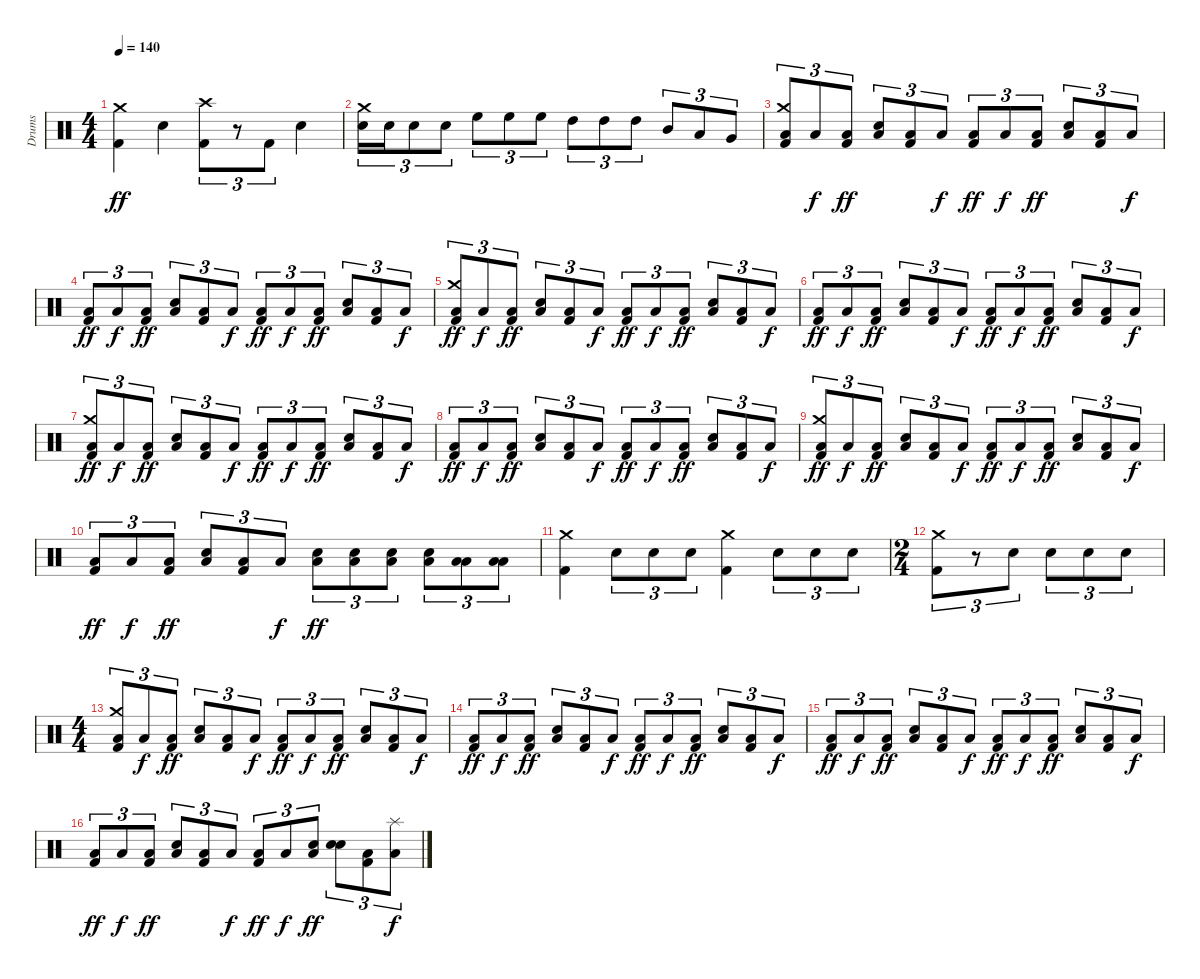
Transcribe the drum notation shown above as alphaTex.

\track ("Drums" "Drums") {instrument percussion}
\staff {score}
\articulation defaults
\ts (4 4)
\tempo 140
\clef neutral
\ks c
("Kick (hit) 2" "Crash medium (hit)").4{dy ff} "Snare (hit) 2".4 ("Kick (hit) 2" "Crash high (hit)").8{tu (3 2)} r.8{tu (3 2)} "Kick (hit) 2".8{tu (3 2)} "Snare (hit) 2".4 |
("Snare (hit) 2" "Crash medium (hit)").16{tu (3 2)} "Snare (hit) 2".16{tu (3 2)} "Snare (hit) 2".8{tu (3 2)} "Snare (hit) 2".8{tu (3 2)} "High Floor Tom (hit)".8{tu (3 2)} "High Floor Tom (hit)".8{tu (3 2)} "High Floor Tom (hit)".8{tu (3 2)} "High Tom (hit)".8{tu (3 2)} "High Tom (hit)".8{tu (3 2)} "High Tom (hit)".8{tu (3 2)} "Mid Tom (hit)".8{tu (3 2)} "Low Tom (hit)".8{tu (3 2)} "Very Low Tom (hit)".8{tu (3 2)} |
("Kick (hit) 2" "Crash medium (hit)" "Low Floor Tom (hit)").8{tu (3 2)} "Low Floor Tom (hit)".8{tu (3 2) dy f} ("Kick (hit) 2" "Low Floor Tom (hit)").8{tu (3 2) dy ff} ("Snare (hit) 2" "Low Floor Tom (hit)").8{tu (3 2)} ("Kick (hit) 2" "Low Floor Tom (hit)").8{tu (3 2)} "Low Floor Tom (hit)".8{tu (3 2) dy f} ("Kick (hit) 2" "Low Floor Tom (hit)").8{tu (3 2) dy ff} "Low Floor Tom (hit)".8{tu (3 2) dy f} ("Kick (hit) 2" "Low Floor Tom (hit)").8{tu (3 2) dy ff} ("Snare (hit) 2" "Low Floor Tom (hit)").8{tu (3 2)} ("Kick (hit) 2" "Low Floor Tom (hit)").8{tu (3 2)} "Low Floor Tom (hit)".8{tu (3 2) dy f} |
("Kick (hit) 2" "Low Floor Tom (hit)").8{tu (3 2) dy ff} "Low Floor Tom (hit)".8{tu (3 2) dy f} ("Kick (hit) 2" "Low Floor Tom (hit)").8{tu (3 2) dy ff} ("Snare (hit) 2" "Low Floor Tom (hit)").8{tu (3 2)} ("Kick (hit) 2" "Low Floor Tom (hit)").8{tu (3 2)} "Low Floor Tom (hit)".8{tu (3 2) dy f} ("Kick (hit) 2" "Low Floor Tom (hit)").8{tu (3 2) dy ff} "Low Floor Tom (hit)".8{tu (3 2) dy f} ("Kick (hit) 2" "Low Floor Tom (hit)").8{tu (3 2) dy ff} ("Snare (hit) 2" "Low Floor Tom (hit)").8{tu (3 2)} ("Kick (hit) 2" "Low Floor Tom (hit)").8{tu (3 2)} "Low Floor Tom (hit)".8{tu (3 2) dy f} |
("Kick (hit) 2" "Crash medium (hit)" "Low Floor Tom (hit)").8{tu (3 2) dy ff} "Low Floor Tom (hit)".8{tu (3 2) dy f} ("Kick (hit) 2" "Low Floor Tom (hit)").8{tu (3 2) dy ff} ("Snare (hit) 2" "Low Floor Tom (hit)").8{tu (3 2)} ("Kick (hit) 2" "Low Floor Tom (hit)").8{tu (3 2)} "Low Floor Tom (hit)".8{tu (3 2) dy f} ("Kick (hit) 2" "Low Floor Tom (hit)").8{tu (3 2) dy ff} "Low Floor Tom (hit)".8{tu (3 2) dy f} ("Kick (hit) 2" "Low Floor Tom (hit)").8{tu (3 2) dy ff} ("Snare (hit) 2" "Low Floor Tom (hit)").8{tu (3 2)} ("Kick (hit) 2" "Low Floor Tom (hit)").8{tu (3 2)} "Low Floor Tom (hit)".8{tu (3 2) dy f} |
("Kick (hit) 2" "Low Floor Tom (hit)").8{tu (3 2) dy ff} "Low Floor Tom (hit)".8{tu (3 2) dy f} ("Kick (hit) 2" "Low Floor Tom (hit)").8{tu (3 2) dy ff} ("Snare (hit) 2" "Low Floor Tom (hit)").8{tu (3 2)} ("Kick (hit) 2" "Low Floor Tom (hit)").8{tu (3 2)} "Low Floor Tom (hit)".8{tu (3 2) dy f} ("Kick (hit) 2" "Low Floor Tom (hit)").8{tu (3 2) dy ff} "Low Floor Tom (hit)".8{tu (3 2) dy f} ("Kick (hit) 2" "Low Floor Tom (hit)").8{tu (3 2) dy ff} ("Snare (hit) 2" "Low Floor Tom (hit)").8{tu (3 2)} ("Kick (hit) 2" "Low Floor Tom (hit)").8{tu (3 2)} "Low Floor Tom (hit)".8{tu (3 2) dy f} |
("Kick (hit) 2" "Crash medium (hit)" "Low Floor Tom (hit)").8{tu (3 2) dy ff} "Low Floor Tom (hit)".8{tu (3 2) dy f} ("Kick (hit) 2" "Low Floor Tom (hit)").8{tu (3 2) dy ff} ("Snare (hit) 2" "Low Floor Tom (hit)").8{tu (3 2)} ("Kick (hit) 2" "Low Floor Tom (hit)").8{tu (3 2)} "Low Floor Tom (hit)".8{tu (3 2) dy f} ("Kick (hit) 2" "Low Floor Tom (hit)").8{tu (3 2) dy ff} "Low Floor Tom (hit)".8{tu (3 2) dy f} ("Kick (hit) 2" "Low Floor Tom (hit)").8{tu (3 2) dy ff} ("Snare (hit) 2" "Low Floor Tom (hit)").8{tu (3 2)} ("Kick (hit) 2" "Low Floor Tom (hit)").8{tu (3 2)} "Low Floor Tom (hit)".8{tu (3 2) dy f} |
("Kick (hit) 2" "Low Floor Tom (hit)").8{tu (3 2) dy ff} "Low Floor Tom (hit)".8{tu (3 2) dy f} ("Kick (hit) 2" "Low Floor Tom (hit)").8{tu (3 2) dy ff} ("Snare (hit) 2" "Low Floor Tom (hit)").8{tu (3 2)} ("Kick (hit) 2" "Low Floor Tom (hit)").8{tu (3 2)} "Low Floor Tom (hit)".8{tu (3 2) dy f} ("Kick (hit) 2" "Low Floor Tom (hit)").8{tu (3 2) dy ff} "Low Floor Tom (hit)".8{tu (3 2) dy f} ("Kick (hit) 2" "Low Floor Tom (hit)").8{tu (3 2) dy ff} ("Snare (hit) 2" "Low Floor Tom (hit)").8{tu (3 2)} ("Kick (hit) 2" "Low Floor Tom (hit)").8{tu (3 2)} "Low Floor Tom (hit)".8{tu (3 2) dy f} |
("Kick (hit) 2" "Crash medium (hit)" "Low Floor Tom (hit)").8{tu (3 2) dy ff} "Low Floor Tom (hit)".8{tu (3 2) dy f} ("Kick (hit) 2" "Low Floor Tom (hit)").8{tu (3 2) dy ff} ("Snare (hit) 2" "Low Floor Tom (hit)").8{tu (3 2)} ("Kick (hit) 2" "Low Floor Tom (hit)").8{tu (3 2)} "Low Floor Tom (hit)".8{tu (3 2) dy f} ("Kick (hit) 2" "Low Floor Tom (hit)").8{tu (3 2) dy ff} "Low Floor Tom (hit)".8{tu (3 2) dy f} ("Kick (hit) 2" "Low Floor Tom (hit)").8{tu (3 2) dy ff} ("Snare (hit) 2" "Low Floor Tom (hit)").8{tu (3 2)} ("Kick (hit) 2" "Low Floor Tom (hit)").8{tu (3 2)} "Low Floor Tom (hit)".8{tu (3 2) dy f} |
("Kick (hit) 2" "Low Floor Tom (hit)").8{tu (3 2) dy ff} "Low Floor Tom (hit)".8{tu (3 2) dy f} ("Kick (hit) 2" "Low Floor Tom (hit)").8{tu (3 2) dy ff} ("Snare (hit) 2" "Low Floor Tom (hit)").8{tu (3 2)} ("Kick (hit) 2" "Low Floor Tom (hit)").8{tu (3 2)} "Low Floor Tom (hit)".8{tu (3 2) dy f} ("Snare (hit) 2" "Low Floor Tom (hit)").8{tu (3 2) dy ff} ("Snare (hit) 2" "Low Floor Tom (hit)").8{tu (3 2)} ("Snare (hit) 2" "Low Floor Tom (hit)").8{tu (3 2)} ("Snare (hit) 2" "Low Floor Tom (hit)").8{tu (3 2)} ("Low Tom (hit)" "Low Floor Tom (hit)").8{tu (3 2)} ("Low Floor Tom (hit)" "Low Floor Tom (hit)").8{tu (3 2)} |
("Kick (hit) 2" "Crash medium (hit)").4 "Snare (hit) 2".8{tu (3 2)} "Snare (hit) 2".8{tu (3 2)} "Snare (hit) 2".8{tu (3 2)} ("Kick (hit) 2" "Crash medium (hit)").4 "Snare (hit) 2".8{tu (3 2)} "Snare (hit) 2".8{tu (3 2)} "Snare (hit) 2".8{tu (3 2)} |
\ts (2 4)
("Kick (hit) 2" "Crash medium (hit)").8{tu (3 2)} r.8{tu (3 2)} "Snare (hit) 2".8{tu (3 2)} "Snare (hit) 2".8{tu (3 2)} "Snare (hit) 2".8{tu (3 2)} "Snare (hit) 2".8{tu (3 2)} |
\ts (4 4)
("Kick (hit) 2" "Crash medium (hit)" "Low Floor Tom (hit)").8{tu (3 2)} "Low Floor Tom (hit)".8{tu (3 2) dy f} ("Kick (hit) 2" "Low Floor Tom (hit)").8{tu (3 2) dy ff} ("Snare (hit) 2" "Low Floor Tom (hit)").8{tu (3 2)} ("Kick (hit) 2" "Low Floor Tom (hit)").8{tu (3 2)} "Low Floor Tom (hit)".8{tu (3 2) dy f} ("Kick (hit) 2" "Low Floor Tom (hit)").8{tu (3 2) dy ff} "Low Floor Tom (hit)".8{tu (3 2) dy f} ("Kick (hit) 2" "Low Floor Tom (hit)").8{tu (3 2) dy ff} ("Snare (hit) 2" "Low Floor Tom (hit)").8{tu (3 2)} ("Kick (hit) 2" "Low Floor Tom (hit)").8{tu (3 2)} "Low Floor Tom (hit)".8{tu (3 2) dy f} |
("Kick (hit) 2" "Low Floor Tom (hit)").8{tu (3 2) dy ff} "Low Floor Tom (hit)".8{tu (3 2) dy f} ("Kick (hit) 2" "Low Floor Tom (hit)").8{tu (3 2) dy ff} ("Snare (hit) 2" "Low Floor Tom (hit)").8{tu (3 2)} ("Kick (hit) 2" "Low Floor Tom (hit)").8{tu (3 2)} "Low Floor Tom (hit)".8{tu (3 2) dy f} ("Kick (hit) 2" "Low Floor Tom (hit)").8{tu (3 2) dy ff} "Low Floor Tom (hit)".8{tu (3 2) dy f} ("Kick (hit) 2" "Low Floor Tom (hit)").8{tu (3 2) dy ff} ("Snare (hit) 2" "Low Floor Tom (hit)").8{tu (3 2)} ("Kick (hit) 2" "Low Floor Tom (hit)").8{tu (3 2)} "Low Floor Tom (hit)".8{tu (3 2) dy f} |
("Kick (hit) 2" "Low Floor Tom (hit)").8{tu (3 2) dy ff} "Low Floor Tom (hit)".8{tu (3 2) dy f} ("Kick (hit) 2" "Low Floor Tom (hit)").8{tu (3 2) dy ff} ("Snare (hit) 2" "Low Floor Tom (hit)").8{tu (3 2)} ("Kick (hit) 2" "Low Floor Tom (hit)").8{tu (3 2)} "Low Floor Tom (hit)".8{tu (3 2) dy f} ("Kick (hit) 2" "Low Floor Tom (hit)").8{tu (3 2) dy ff} "Low Floor Tom (hit)".8{tu (3 2) dy f} ("Kick (hit) 2" "Low Floor Tom (hit)").8{tu (3 2) dy ff} ("Snare (hit) 2" "Low Floor Tom (hit)").8{tu (3 2)} ("Kick (hit) 2" "Low Floor Tom (hit)").8{tu (3 2)} "Low Floor Tom (hit)".8{tu (3 2) dy f} |
("Kick (hit) 2" "Low Floor Tom (hit)").8{tu (3 2) dy ff} "Low Floor Tom (hit)".8{tu (3 2) dy f} ("Kick (hit) 2" "Low Floor Tom (hit)").8{tu (3 2) dy ff} ("Snare (hit) 2" "Low Floor Tom (hit)").8{tu (3 2)} ("Kick (hit) 2" "Low Floor Tom (hit)").8{tu (3 2)} "Low Floor Tom (hit)".8{tu (3 2) dy f} ("Kick (hit) 2" "Low Floor Tom (hit)").8{tu (3 2) dy ff} "Low Floor Tom (hit)".8{tu (3 2) dy f} ("Snare (hit) 2" "Low Floor Tom (hit)").8{tu (3 2) dy ff} ("Snare (hit) 2" "Snare (hit)").8{tu (3 2)} ("Kick (hit) 2" "Low Floor Tom (hit)").8{tu (3 2)} ("Splash (hit)" "Low Floor Tom (hit)").8{tu (3 2) dy f}
